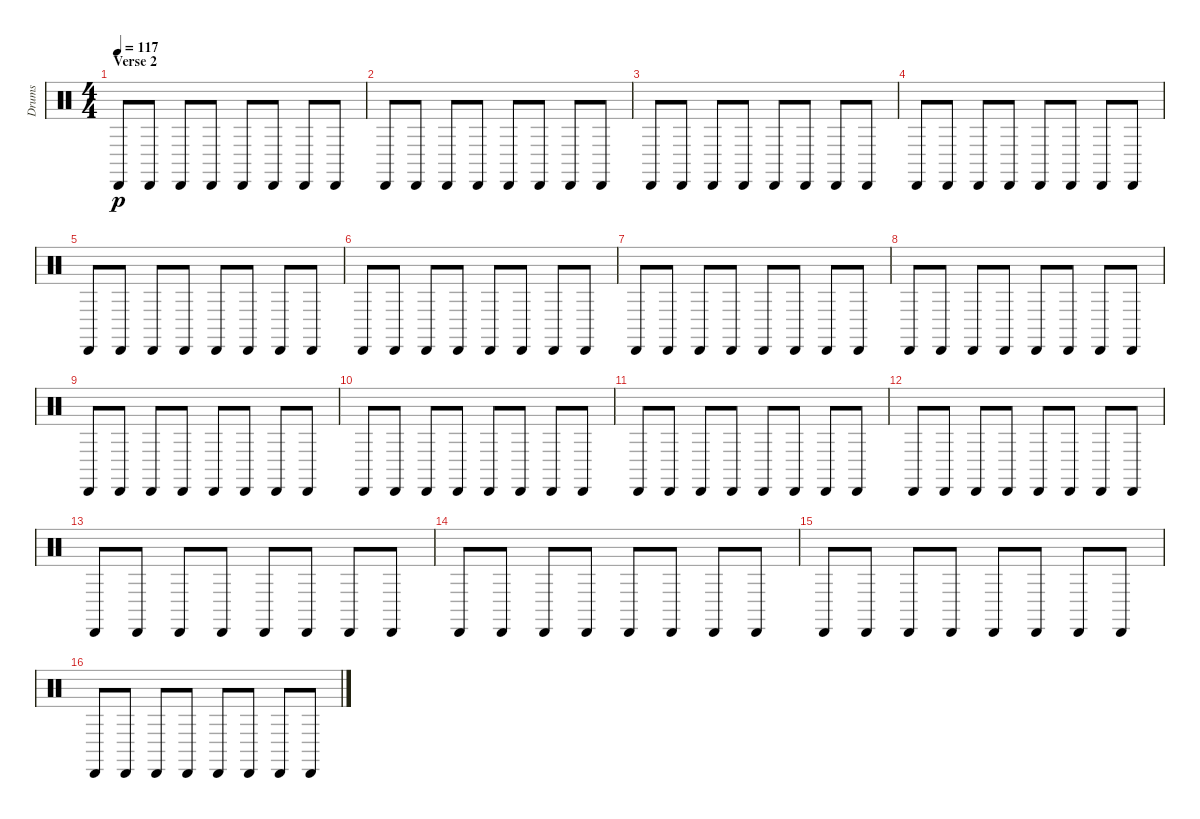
\track ("Drums" "Drums") {instrument percussion}
\staff {score}
\articulation defaults
\ts (4 4)
\section ("" "Verse 2")
\tempo 117
\clef neutral
\ks c "Cabasa (hit)".8{dy p} "Cabasa (hit)".8 "Cabasa (hit)".8 "Cabasa (hit)".8 "Cabasa (hit)".8 "Cabasa (hit)".8 "Cabasa (hit)".8 "Cabasa (hit)".8
|
"Cabasa (hit)".8 "Cabasa (hit)".8 "Cabasa (hit)".8 "Cabasa (hit)".8 "Cabasa (hit)".8 "Cabasa (hit)".8 "Cabasa (hit)".8 "Cabasa (hit)".8 |
"Cabasa (hit)".8 "Cabasa (hit)".8 "Cabasa (hit)".8 "Cabasa (hit)".8 "Cabasa (hit)".8 "Cabasa (hit)".8 "Cabasa (hit)".8 "Cabasa (hit)".8 |
"Cabasa (hit)".8 "Cabasa (hit)".8 "Cabasa (hit)".8 "Cabasa (hit)".8 "Cabasa (hit)".8 "Cabasa (hit)".8 "Cabasa (hit)".8 "Cabasa (hit)".8 |
"Cabasa (hit)".8 "Cabasa (hit)".8 "Cabasa (hit)".8 "Cabasa (hit)".8 "Cabasa (hit)".8 "Cabasa (hit)".8 "Cabasa (hit)".8 "Cabasa (hit)".8 |
"Cabasa (hit)".8 "Cabasa (hit)".8 "Cabasa (hit)".8 "Cabasa (hit)".8 "Cabasa (hit)".8 "Cabasa (hit)".8 "Cabasa (hit)".8 "Cabasa (hit)".8 |
"Cabasa (hit)".8 "Cabasa (hit)".8 "Cabasa (hit)".8 "Cabasa (hit)".8 "Cabasa (hit)".8 "Cabasa (hit)".8 "Cabasa (hit)".8 "Cabasa (hit)".8 |
"Cabasa (hit)".8 "Cabasa (hit)".8 "Cabasa (hit)".8 "Cabasa (hit)".8 "Cabasa (hit)".8 "Cabasa (hit)".8 "Cabasa (hit)".8 "Cabasa (hit)".8 |
"Cabasa (hit)".8 "Cabasa (hit)".8 "Cabasa (hit)".8 "Cabasa (hit)".8 "Cabasa (hit)".8 "Cabasa (hit)".8 "Cabasa (hit)".8 "Cabasa (hit)".8 |
"Cabasa (hit)".8 "Cabasa (hit)".8 "Cabasa (hit)".8 "Cabasa (hit)".8 "Cabasa (hit)".8 "Cabasa (hit)".8 "Cabasa (hit)".8 "Cabasa (hit)".8 |
"Cabasa (hit)".8 "Cabasa (hit)".8 "Cabasa (hit)".8 "Cabasa (hit)".8 "Cabasa (hit)".8 "Cabasa (hit)".8 "Cabasa (hit)".8 "Cabasa (hit)".8 |
"Cabasa (hit)".8 "Cabasa (hit)".8 "Cabasa (hit)".8 "Cabasa (hit)".8 "Cabasa (hit)".8 "Cabasa (hit)".8 "Cabasa (hit)".8 "Cabasa (hit)".8 |
"Cabasa (hit)".8 "Cabasa (hit)".8 "Cabasa (hit)".8 "Cabasa (hit)".8 "Cabasa (hit)".8 "Cabasa (hit)".8 "Cabasa (hit)".8 "Cabasa (hit)".8 |
"Cabasa (hit)".8 "Cabasa (hit)".8 "Cabasa (hit)".8 "Cabasa (hit)".8 "Cabasa (hit)".8 "Cabasa (hit)".8 "Cabasa (hit)".8 "Cabasa (hit)".8 |
"Cabasa (hit)".8 "Cabasa (hit)".8 "Cabasa (hit)".8 "Cabasa (hit)".8 "Cabasa (hit)".8 "Cabasa (hit)".8 "Cabasa (hit)".8 "Cabasa (hit)".8 |
"Cabasa (hit)".8 "Cabasa (hit)".8 "Cabasa (hit)".8 "Cabasa (hit)".8 "Cabasa (hit)".8 "Cabasa (hit)".8 "Cabasa (hit)".8 "Cabasa (hit)".8
